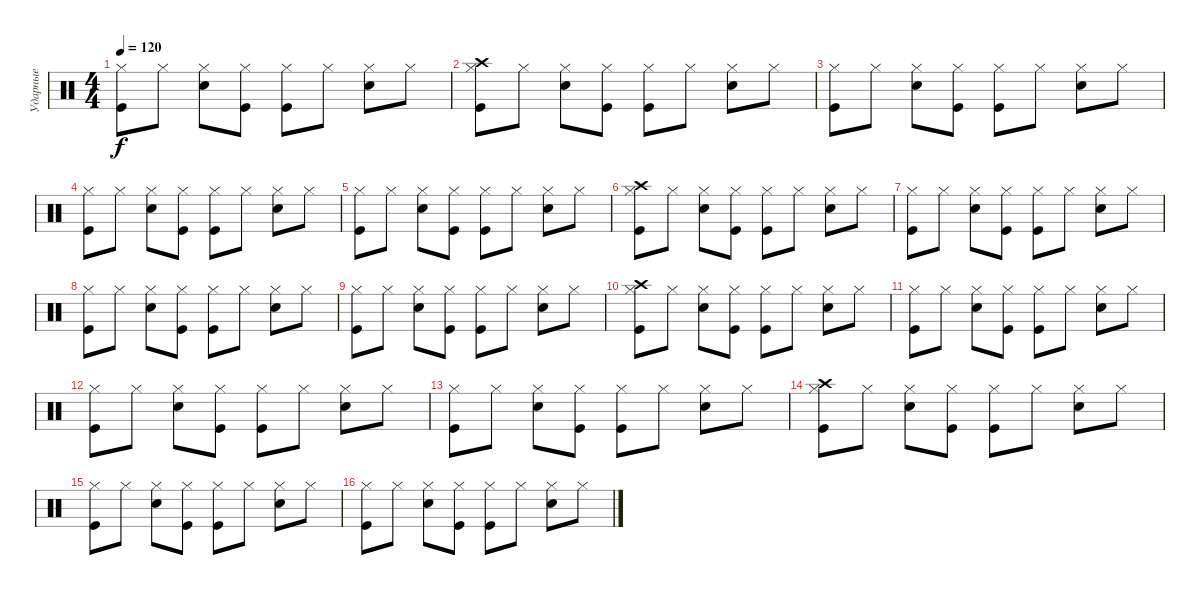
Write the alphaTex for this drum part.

\track ("Ударные" "Ударные") {instrument percussion}
\staff {score}
\articulation defaults
\ts (4 4)
\tempo 120
\clef neutral
\ks c
("Kick (hit)" "Hi-Hat (closed)").8{dy f} "Hi-Hat (closed)".8 ("Snare (hit) 2" "Hi-Hat (closed)").8 ("Kick (hit)" "Hi-Hat (closed)").8 ("Kick (hit)" "Hi-Hat (closed)").8 "Hi-Hat (closed)".8 ("Snare (hit) 2" "Hi-Hat (closed)").8 "Hi-Hat (closed)".8 |
("Kick (hit)" "Hi-Hat (closed)" "Crash high (hit)").8 "Hi-Hat (closed)".8 ("Snare (hit) 2" "Hi-Hat (closed)").8 ("Kick (hit)" "Hi-Hat (closed)").8 ("Kick (hit)" "Hi-Hat (closed)").8 "Hi-Hat (closed)".8 ("Snare (hit) 2" "Hi-Hat (closed)").8 "Hi-Hat (closed)".8 |
("Kick (hit)" "Hi-Hat (closed)").8 "Hi-Hat (closed)".8 ("Snare (hit) 2" "Hi-Hat (closed)").8 ("Kick (hit)" "Hi-Hat (closed)").8 ("Kick (hit)" "Hi-Hat (closed)").8 "Hi-Hat (closed)".8 ("Snare (hit) 2" "Hi-Hat (closed)").8 "Hi-Hat (closed)".8 |
("Kick (hit)" "Hi-Hat (closed)").8 "Hi-Hat (closed)".8 ("Snare (hit) 2" "Hi-Hat (closed)").8 ("Kick (hit)" "Hi-Hat (closed)").8 ("Kick (hit)" "Hi-Hat (closed)").8 "Hi-Hat (closed)".8 ("Snare (hit) 2" "Hi-Hat (closed)").8 "Hi-Hat (closed)".8 |
("Kick (hit)" "Hi-Hat (closed)").8 "Hi-Hat (closed)".8 ("Snare (hit) 2" "Hi-Hat (closed)").8 ("Kick (hit)" "Hi-Hat (closed)").8 ("Kick (hit)" "Hi-Hat (closed)").8 "Hi-Hat (closed)".8 ("Snare (hit) 2" "Hi-Hat (closed)").8 "Hi-Hat (closed)".8 |
("Kick (hit)" "Hi-Hat (closed)" "Crash high (hit)").8 "Hi-Hat (closed)".8 ("Snare (hit) 2" "Hi-Hat (closed)").8 ("Kick (hit)" "Hi-Hat (closed)").8 ("Kick (hit)" "Hi-Hat (closed)").8 "Hi-Hat (closed)".8 ("Snare (hit) 2" "Hi-Hat (closed)").8 "Hi-Hat (closed)".8 |
("Kick (hit)" "Hi-Hat (closed)").8 "Hi-Hat (closed)".8 ("Snare (hit) 2" "Hi-Hat (closed)").8 ("Kick (hit)" "Hi-Hat (closed)").8 ("Kick (hit)" "Hi-Hat (closed)").8 "Hi-Hat (closed)".8 ("Snare (hit) 2" "Hi-Hat (closed)").8 "Hi-Hat (closed)".8 |
("Kick (hit)" "Hi-Hat (closed)").8 "Hi-Hat (closed)".8 ("Snare (hit) 2" "Hi-Hat (closed)").8 ("Kick (hit)" "Hi-Hat (closed)").8 ("Kick (hit)" "Hi-Hat (closed)").8 "Hi-Hat (closed)".8 ("Snare (hit) 2" "Hi-Hat (closed)").8 "Hi-Hat (closed)".8 |
("Kick (hit)" "Hi-Hat (closed)").8 "Hi-Hat (closed)".8 ("Snare (hit) 2" "Hi-Hat (closed)").8 ("Kick (hit)" "Hi-Hat (closed)").8 ("Kick (hit)" "Hi-Hat (closed)").8 "Hi-Hat (closed)".8 ("Snare (hit) 2" "Hi-Hat (closed)").8 "Hi-Hat (closed)".8 |
("Kick (hit)" "Hi-Hat (closed)" "Crash high (hit)").8 "Hi-Hat (closed)".8 ("Snare (hit) 2" "Hi-Hat (closed)").8 ("Kick (hit)" "Hi-Hat (closed)").8 ("Kick (hit)" "Hi-Hat (closed)").8 "Hi-Hat (closed)".8 ("Snare (hit) 2" "Hi-Hat (closed)").8 "Hi-Hat (closed)".8 |
("Kick (hit)" "Hi-Hat (closed)").8 "Hi-Hat (closed)".8 ("Snare (hit) 2" "Hi-Hat (closed)").8 ("Kick (hit)" "Hi-Hat (closed)").8 ("Kick (hit)" "Hi-Hat (closed)").8 "Hi-Hat (closed)".8 ("Snare (hit) 2" "Hi-Hat (closed)").8 "Hi-Hat (closed)".8 |
("Kick (hit)" "Hi-Hat (closed)").8 "Hi-Hat (closed)".8 ("Snare (hit) 2" "Hi-Hat (closed)").8 ("Kick (hit)" "Hi-Hat (closed)").8 ("Kick (hit)" "Hi-Hat (closed)").8 "Hi-Hat (closed)".8 ("Snare (hit) 2" "Hi-Hat (closed)").8 "Hi-Hat (closed)".8 |
("Kick (hit)" "Hi-Hat (closed)").8 "Hi-Hat (closed)".8 ("Snare (hit) 2" "Hi-Hat (closed)").8 ("Kick (hit)" "Hi-Hat (closed)").8 ("Kick (hit)" "Hi-Hat (closed)").8 "Hi-Hat (closed)".8 ("Snare (hit) 2" "Hi-Hat (closed)").8 "Hi-Hat (closed)".8 |
("Kick (hit)" "Hi-Hat (closed)" "Crash high (hit)").8 "Hi-Hat (closed)".8 ("Snare (hit) 2" "Hi-Hat (closed)").8 ("Kick (hit)" "Hi-Hat (closed)").8 ("Kick (hit)" "Hi-Hat (closed)").8 "Hi-Hat (closed)".8 ("Snare (hit) 2" "Hi-Hat (closed)").8 "Hi-Hat (closed)".8 |
("Kick (hit)" "Hi-Hat (closed)").8 "Hi-Hat (closed)".8 ("Snare (hit) 2" "Hi-Hat (closed)").8 ("Kick (hit)" "Hi-Hat (closed)").8 ("Kick (hit)" "Hi-Hat (closed)").8 "Hi-Hat (closed)".8 ("Snare (hit) 2" "Hi-Hat (closed)").8 "Hi-Hat (closed)".8 |
("Kick (hit)" "Hi-Hat (closed)").8 "Hi-Hat (closed)".8 ("Snare (hit) 2" "Hi-Hat (closed)").8 ("Kick (hit)" "Hi-Hat (closed)").8 ("Kick (hit)" "Hi-Hat (closed)").8 "Hi-Hat (closed)".8 ("Snare (hit) 2" "Hi-Hat (closed)").8 "Hi-Hat (closed)".8
